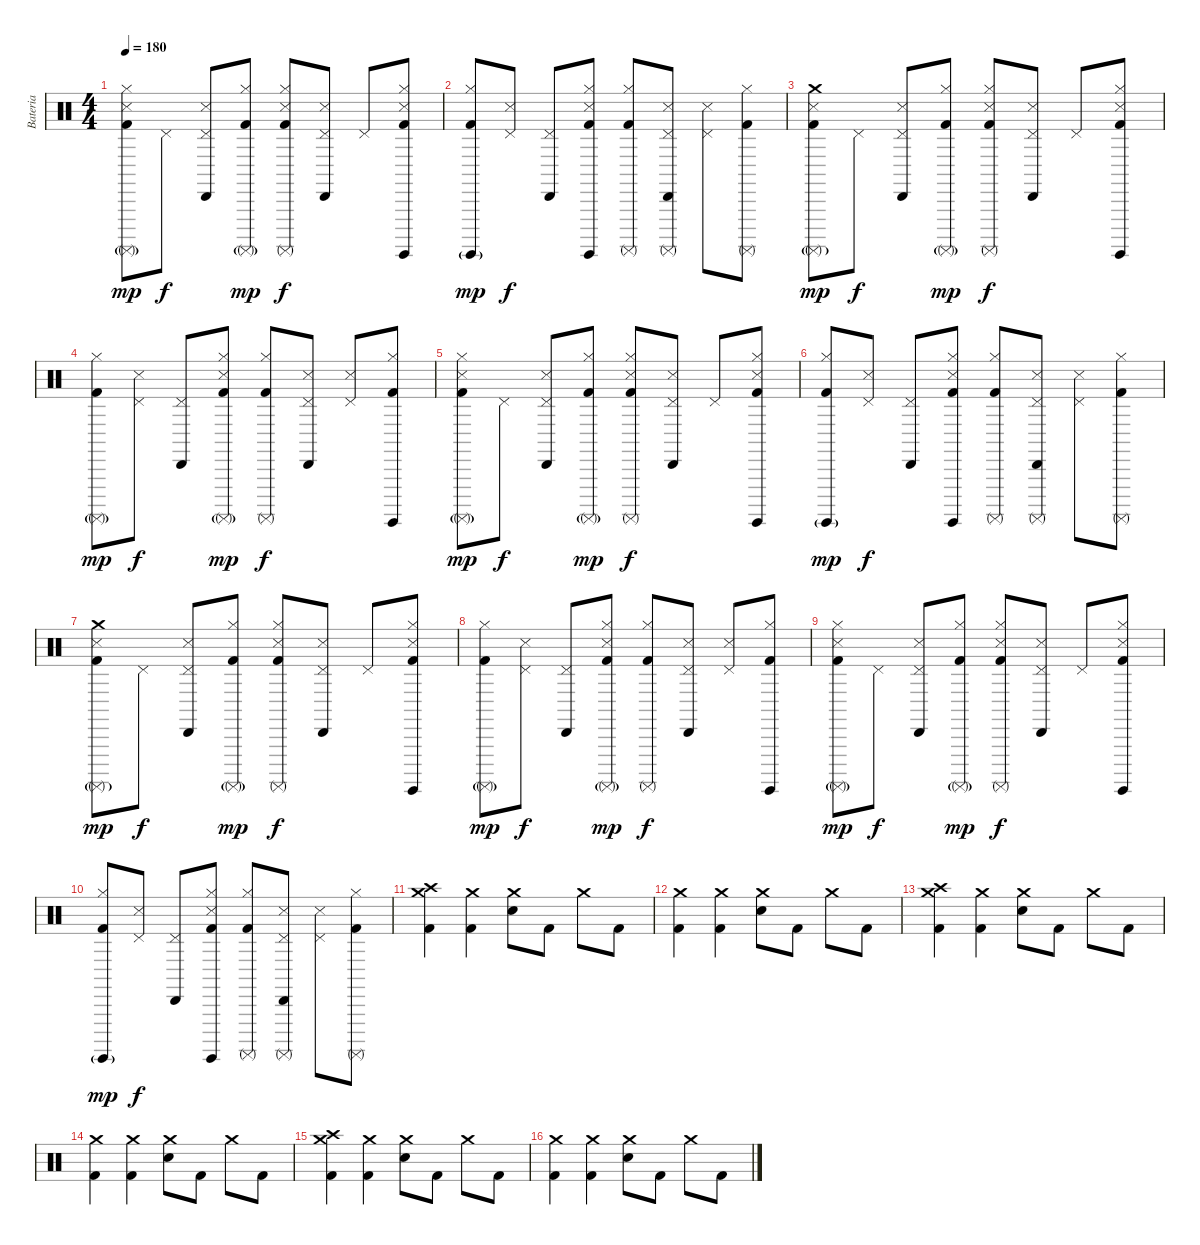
\track ("Bateria" "Bateria") {instrument percussion}
\staff {score}
\articulation defaults
\ts (4 4)
\tempo 180
\clef neutral
\ks c
("Hi-Hat (closed)" "Snare (side stick) 3" "Surdo (mute)"{g} "Kick (hit) 2").8{dy mp} "Pedal Hi-Hat (hit)".8{dy f} ("Pedal Hi-Hat (hit)" "Cabasa (hit)" "Snare (side stick) 3").8 ("Hi-Hat (closed)" "Surdo (mute)"{g} "Kick (hit) 2").8{dy mp} ("Hi-Hat (closed)" "Snare (side stick) 3" "Surdo (mute)" "Kick (hit) 2").8{dy f} ("Pedal Hi-Hat (hit)" "Cabasa (hit)" "Snare (side stick) 3").8 "Pedal Hi-Hat (hit)".8 ("Hi-Hat (closed)" "Snare (side stick) 3" "Surdo (hit)" "Kick (hit) 2").8 |
("Hi-Hat (closed)" "Surdo (hit)"{g} "Kick (hit) 2").8{dy mp} ("Pedal Hi-Hat (hit)" "Snare (side stick) 3").8{dy f} ("Pedal Hi-Hat (hit)" "Cabasa (hit)").8 ("Hi-Hat (closed)" "Snare (side stick) 3" "Surdo (hit)" "Kick (hit) 2").8 ("Hi-Hat (closed)" "Surdo (mute)" "Kick (hit) 2").8 ("Pedal Hi-Hat (hit)" "Cabasa (hit)" "Snare (side stick) 3" "Surdo (mute)").8 ("Pedal Hi-Hat (hit)" "Snare (side stick) 3").8 ("Hi-Hat (closed)" "Surdo (mute)" "Kick (hit) 2").8 |
("Crash medium (hit)" "Snare (side stick) 3" "Surdo (mute)"{g} "Kick (hit) 2").8{dy mp} "Pedal Hi-Hat (hit)".8{dy f} ("Pedal Hi-Hat (hit)" "Cabasa (hit)" "Snare (side stick) 3").8 ("Hi-Hat (closed)" "Surdo (mute)"{g} "Kick (hit) 2").8{dy mp} ("Hi-Hat (closed)" "Snare (side stick) 3" "Surdo (mute)" "Kick (hit) 2").8{dy f} ("Pedal Hi-Hat (hit)" "Cabasa (hit)" "Snare (side stick) 3").8 "Pedal Hi-Hat (hit)".8 ("Hi-Hat (closed)" "Snare (side stick) 3" "Surdo (hit)" "Kick (hit) 2").8 |
("Hi-Hat (closed)" "Surdo (mute)"{g} "Kick (hit) 2").8{dy mp} ("Pedal Hi-Hat (hit)" "Snare (side stick) 3").8{dy f} ("Pedal Hi-Hat (hit)" "Cabasa (hit)").8 ("Hi-Hat (closed)" "Snare (side stick) 3" "Surdo (mute)"{g} "Kick (hit) 2").8{dy mp} ("Hi-Hat (closed)" "Surdo (mute)" "Kick (hit) 2").8{dy f} ("Pedal Hi-Hat (hit)" "Cabasa (hit)" "Snare (side stick) 3").8 ("Pedal Hi-Hat (hit)" "Snare (side stick) 3").8 ("Hi-Hat (closed)" "Surdo (hit)" "Kick (hit) 2").8 |
("Hi-Hat (closed)" "Snare (side stick) 3" "Surdo (mute)"{g} "Kick (hit) 2").8{dy mp} "Pedal Hi-Hat (hit)".8{dy f} ("Pedal Hi-Hat (hit)" "Cabasa (hit)" "Snare (side stick) 3").8 ("Hi-Hat (closed)" "Surdo (mute)"{g} "Kick (hit) 2").8{dy mp} ("Hi-Hat (closed)" "Snare (side stick) 3" "Surdo (mute)" "Kick (hit) 2").8{dy f} ("Pedal Hi-Hat (hit)" "Cabasa (hit)" "Snare (side stick) 3").8 "Pedal Hi-Hat (hit)".8 ("Hi-Hat (closed)" "Snare (side stick) 3" "Surdo (hit)" "Kick (hit) 2").8 |
("Hi-Hat (closed)" "Surdo (hit)"{g} "Kick (hit) 2").8{dy mp} ("Pedal Hi-Hat (hit)" "Snare (side stick) 3").8{dy f} ("Pedal Hi-Hat (hit)" "Cabasa (hit)").8 ("Hi-Hat (closed)" "Snare (side stick) 3" "Surdo (hit)" "Kick (hit) 2").8 ("Hi-Hat (closed)" "Surdo (mute)" "Kick (hit) 2").8 ("Pedal Hi-Hat (hit)" "Cabasa (hit)" "Snare (side stick) 3" "Surdo (mute)").8 ("Pedal Hi-Hat (hit)" "Snare (side stick) 3").8 ("Hi-Hat (closed)" "Surdo (mute)" "Kick (hit) 2").8 |
("Crash medium (hit)" "Snare (side stick) 3" "Surdo (mute)"{g} "Kick (hit) 2").8{dy mp} "Pedal Hi-Hat (hit)".8{dy f} ("Pedal Hi-Hat (hit)" "Cabasa (hit)" "Snare (side stick) 3").8 ("Hi-Hat (closed)" "Surdo (mute)"{g} "Kick (hit) 2").8{dy mp} ("Hi-Hat (closed)" "Snare (side stick) 3" "Surdo (mute)" "Kick (hit) 2").8{dy f} ("Pedal Hi-Hat (hit)" "Cabasa (hit)" "Snare (side stick) 3").8 "Pedal Hi-Hat (hit)".8 ("Hi-Hat (closed)" "Snare (side stick) 3" "Surdo (hit)" "Kick (hit) 2").8 |
("Hi-Hat (closed)" "Surdo (mute)"{g} "Kick (hit) 2").8{dy mp} ("Pedal Hi-Hat (hit)" "Snare (side stick) 3").8{dy f} ("Pedal Hi-Hat (hit)" "Cabasa (hit)").8 ("Hi-Hat (closed)" "Snare (side stick) 3" "Surdo (mute)"{g} "Kick (hit) 2").8{dy mp} ("Hi-Hat (closed)" "Surdo (mute)" "Kick (hit) 2").8{dy f} ("Pedal Hi-Hat (hit)" "Cabasa (hit)" "Snare (side stick) 3").8 ("Pedal Hi-Hat (hit)" "Snare (side stick) 3").8 ("Hi-Hat (closed)" "Surdo (hit)" "Kick (hit) 2").8 |
("Hi-Hat (closed)" "Snare (side stick) 3" "Surdo (mute)"{g} "Kick (hit) 2").8{dy mp} "Pedal Hi-Hat (hit)".8{dy f} ("Pedal Hi-Hat (hit)" "Cabasa (hit)" "Snare (side stick) 3").8 ("Hi-Hat (closed)" "Surdo (mute)"{g} "Kick (hit) 2").8{dy mp} ("Hi-Hat (closed)" "Snare (side stick) 3" "Surdo (mute)" "Kick (hit) 2").8{dy f} ("Pedal Hi-Hat (hit)" "Cabasa (hit)" "Snare (side stick) 3").8 "Pedal Hi-Hat (hit)".8 ("Hi-Hat (closed)" "Snare (side stick) 3" "Surdo (hit)" "Kick (hit) 2").8 |
("Hi-Hat (closed)" "Surdo (hit)"{g} "Kick (hit) 2").8{dy mp} ("Pedal Hi-Hat (hit)" "Snare (side stick) 3").8{dy f} ("Pedal Hi-Hat (hit)" "Cabasa (hit)").8 ("Hi-Hat (closed)" "Snare (side stick) 3" "Surdo (hit)" "Kick (hit) 2").8 ("Hi-Hat (closed)" "Surdo (mute)" "Kick (hit) 2").8 ("Pedal Hi-Hat (hit)" "Cabasa (hit)" "Snare (side stick) 3" "Surdo (mute)").8 ("Pedal Hi-Hat (hit)" "Snare (side stick) 3").8 ("Hi-Hat (closed)" "Surdo (mute)" "Kick (hit) 2").8 |
("Crash medium (hit)" "Crash high (hit)" "Kick (hit) 2").4 ("Crash medium (hit)" "Kick (hit) 2").4 ("Crash medium (hit)" "Electric Snare (hit)").8 "Kick (hit) 2".8 "Crash medium (hit)".8 "Kick (hit) 2".8 |
("Crash medium (hit)" "Kick (hit) 2").4 ("Crash medium (hit)" "Kick (hit) 2").4 ("Crash medium (hit)" "Electric Snare (hit)").8 "Kick (hit) 2".8 "Crash medium (hit)".8 "Kick (hit) 2".8 |
("Crash medium (hit)" "Crash high (hit)" "Kick (hit) 2").4 ("Crash medium (hit)" "Kick (hit) 2").4 ("Crash medium (hit)" "Electric Snare (hit)").8 "Kick (hit) 2".8 "Crash medium (hit)".8 "Kick (hit) 2".8 |
("Crash medium (hit)" "Kick (hit) 2").4 ("Crash medium (hit)" "Kick (hit) 2").4 ("Crash medium (hit)" "Electric Snare (hit)").8 "Kick (hit) 2".8 "Crash medium (hit)".8 "Kick (hit) 2".8 |
("Crash medium (hit)" "Crash high (hit)" "Kick (hit) 2").4 ("Crash medium (hit)" "Kick (hit) 2").4 ("Crash medium (hit)" "Electric Snare (hit)").8 "Kick (hit) 2".8 "Crash medium (hit)".8 "Kick (hit) 2".8 |
("Crash medium (hit)" "Kick (hit) 2").4 ("Crash medium (hit)" "Kick (hit) 2").4 ("Crash medium (hit)" "Electric Snare (hit)").8 "Kick (hit) 2".8 "Crash medium (hit)".8 "Kick (hit) 2".8
